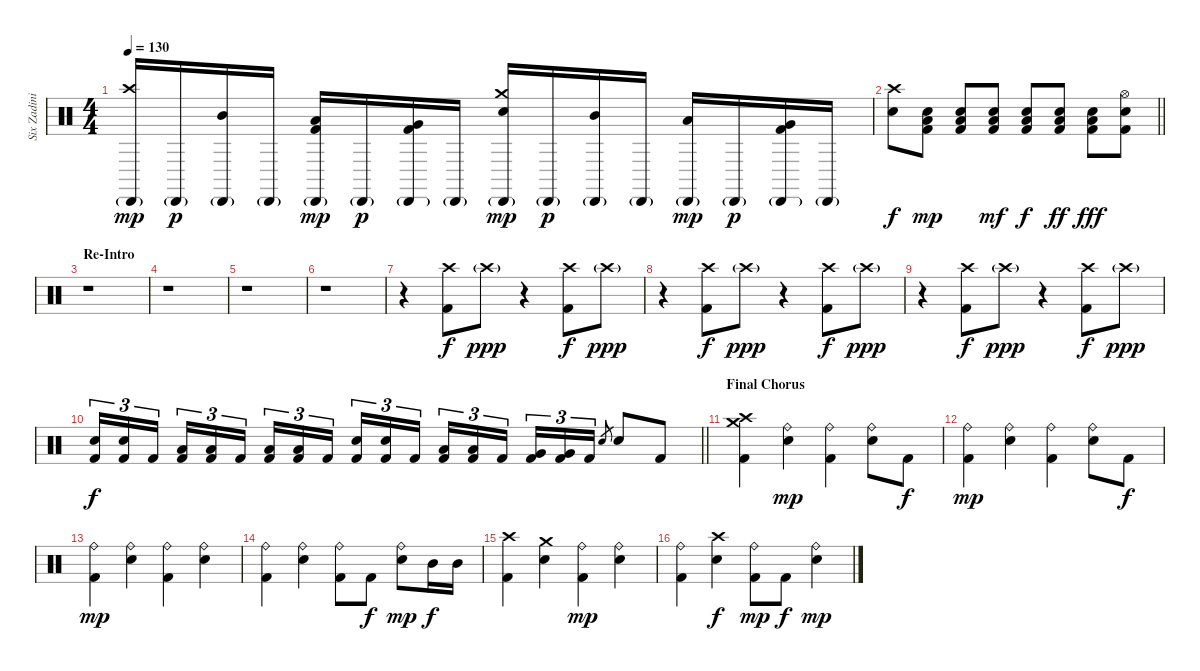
\track ("Six Zadinia" "Six Zadini") {instrument percussion}
\staff {score}
\articulation defaults
\ts (4 4)
\tempo 130
\clef neutral
\ks c
("Crash high (hit)" "Cabasa (hit)"{g}).16{dy mp} "Cabasa (hit)"{g}.16{dy p} ("Mid Tom (hit)" "Cabasa (hit)"{g}).16 "Cabasa (hit)"{g}.16 ("Low Tom (hit)" "Cabasa (hit)"{g} "Kick (hit) 2").16{dy mp} "Cabasa (hit)"{g}.16{dy p} ("Very Low Tom (hit)" "Cabasa (hit)"{g} "Kick (hit) 2").16 "Cabasa (hit)"{g}.16 ("Crash medium (hit)" "Electric Snare (hit)" "Cabasa (hit)"{g}).16{dy mp} "Cabasa (hit)"{g}.16{dy p} ("Mid Tom (hit)" "Cabasa (hit)"{g}).16 "Cabasa (hit)"{g}.16 ("Low Tom (hit)" "Cabasa (hit)"{g}).16{dy mp} "Cabasa (hit)"{g}.16{dy p} ("Very Low Tom (hit)" "Cabasa (hit)"{g} "Kick (hit) 2").16 "Cabasa (hit)"{g}.16 |
\barLineRight lightlight
("Crash high (hit)" "Electric Snare (hit)").8{dy f} ("Electric Snare (hit)" "Low Floor Tom (hit)" "Kick (hit) 2").8{dy mp} ("Electric Snare (hit)" "Low Floor Tom (hit)" "Kick (hit) 2").8 ("Electric Snare (hit)" "Low Floor Tom (hit)" "Kick (hit) 2").8{dy mf} ("Electric Snare (hit)" "Low Floor Tom (hit)" "Kick (hit) 2").8{dy f} ("Electric Snare (hit)" "Low Floor Tom (hit)" "Kick (hit) 2").8{dy ff} ("Electric Snare (hit)" "Low Floor Tom (hit)" "Kick (hit) 2").8{dy fff} ("Hi-Hat (open)" "Electric Snare (hit)" "Kick (hit) 2").8 |
\section ("" "Re-Intro")
r.1 |
r.1 |
r.1 |
r.1 |
r.4 ("Crash high (hit)" "Kick (hit) 2").8{dy f} "Crash high (hit)"{g}.8{dy ppp} r.4 ("Crash high (hit)" "Kick (hit) 2").8{dy f} "Crash high (hit)"{g}.8{dy ppp} |
r.4 ("Crash high (hit)" "Kick (hit) 2").8{dy f} "Crash high (hit)"{g}.8{dy ppp} r.4 ("Crash high (hit)" "Kick (hit) 2").8{dy f} "Crash high (hit)"{g}.8{dy ppp} |
r.4 ("Crash high (hit)" "Kick (hit) 2").8{dy f} "Crash high (hit)"{g}.8{dy ppp} r.4 ("Crash high (hit)" "Kick (hit) 2").8{dy f} "Crash high (hit)"{g}.8{dy ppp} |
\barLineRight lightlight
("Electric Snare (hit)" "Kick (hit) 2").16{tu (3 2) dy f} ("Electric Snare (hit)" "Kick (hit) 2").16{tu (3 2)} "Kick (hit) 2".16{tu (3 2) beam splitsecondary} ("Low Tom (hit)" "Kick (hit) 2").16{tu (3 2)} ("Low Tom (hit)" "Kick (hit) 2").16{tu (3 2)} "Kick (hit) 2".16{tu (3 2)} ("Low Floor Tom (hit)" "Kick (hit) 2").16{tu (3 2)} ("Low Floor Tom (hit)" "Kick (hit) 2").16{tu (3 2)} "Kick (hit) 2".16{tu (3 2) beam splitsecondary} ("Electric Snare (hit)" "Kick (hit) 2").16{tu (3 2)} ("Electric Snare (hit)" "Kick (hit) 2").16{tu (3 2)} "Kick (hit) 2".16{tu (3 2)} ("Low Tom (hit)" "Kick (hit) 2").16{tu (3 2)} ("Low Tom (hit)" "Kick (hit) 2").16{tu (3 2)} "Kick (hit) 2".16{tu (3 2) beam splitsecondary} ("Very Low Tom (hit)" "Kick (hit) 2").16{tu (3 2)} ("Very Low Tom (hit)" "Kick (hit) 2").16{tu (3 2)} "Kick (hit) 2".16{tu (3 2)} "Electric Snare (hit)".8{gr} "Electric Snare (hit)".8 "Kick (hit) 2".8 |
\section ("" "Final Chorus")
("Crash high (hit)" "Crash medium (hit)" "Kick (hit) 2").4 ("Ride (bell)" "Electric Snare (hit)").4{dy mp} ("Ride (bell)" "Kick (hit) 2").4 ("Ride (bell)" "Electric Snare (hit)").8 "Kick (hit) 2".8{dy f} |
("Ride (bell)" "Kick (hit) 2").4{dy mp} ("Ride (bell)" "Electric Snare (hit)").4 ("Ride (bell)" "Kick (hit) 2").4 ("Ride (bell)" "Electric Snare (hit)").8 "Kick (hit) 2".8{dy f} |
("Ride (bell)" "Kick (hit) 2").4{dy mp} ("Ride (bell)" "Electric Snare (hit)").4 ("Ride (bell)" "Kick (hit) 2").4 ("Ride (bell)" "Electric Snare (hit)").4 |
("Ride (bell)" "Kick (hit) 2").4 ("Ride (bell)" "Electric Snare (hit)").4 ("Ride (bell)" "Kick (hit) 2").8 "Kick (hit) 2".8{dy f} ("Ride (bell)" "Electric Snare (hit)").8{dy mp} "Mid Tom (hit)".16{dy f} "Mid Tom (hit)".16 |
("Crash high (hit)" "Kick (hit) 2").4 ("Crash medium (hit)" "Electric Snare (hit)").4 ("Ride (bell)" "Kick (hit) 2").4{dy mp} ("Ride (bell)" "Electric Snare (hit)").4 |
("Ride (bell)" "Kick (hit) 2").4 ("Crash high (hit)" "Electric Snare (hit)").4{dy f} ("Ride (bell)" "Kick (hit) 2").8{dy mp} "Kick (hit) 2".8{dy f} ("Ride (bell)" "Electric Snare (hit)").4{dy mp}
